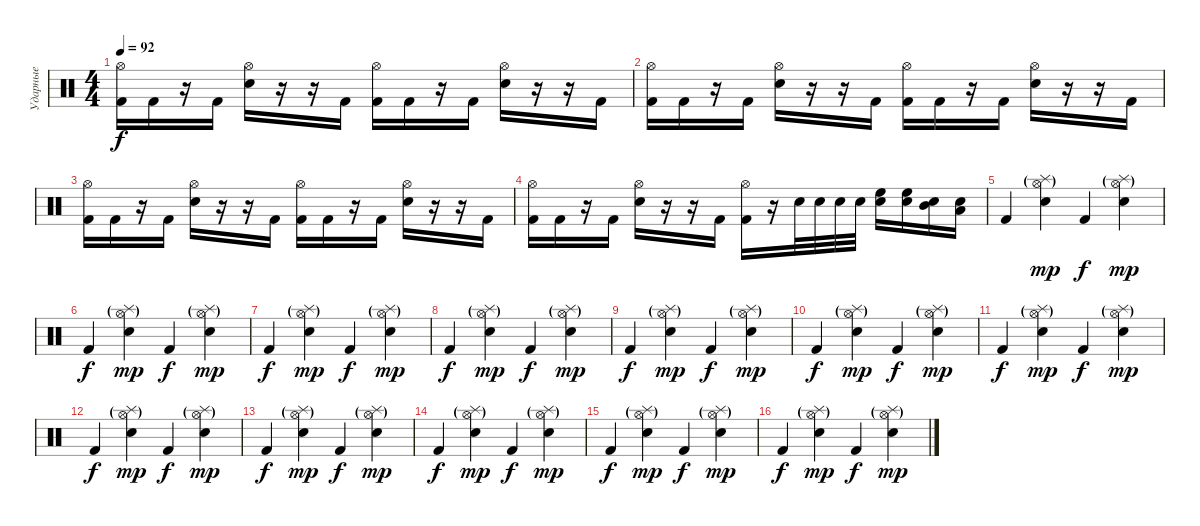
\track ("Ударные" "Ударные") {instrument percussion}
\staff {score}
\articulation defaults
\ts (4 4)
\tempo 92
\clef neutral
\ks c
("Hi-Hat (open)" "Kick (hit) 2").16{dy f} "Kick (hit) 2".16 r.16 "Kick (hit) 2".16 ("Hi-Hat (open)" "Snare (hit) 2").16 r.16 r.16 "Kick (hit) 2".16 ("Hi-Hat (open)" "Kick (hit) 2").16 "Kick (hit) 2".16 r.16 "Kick (hit) 2".16 ("Hi-Hat (open)" "Snare (hit) 2").16 r.16 r.16 "Kick (hit) 2".16 |
("Hi-Hat (open)" "Kick (hit) 2").16 "Kick (hit) 2".16 r.16 "Kick (hit) 2".16 ("Hi-Hat (open)" "Snare (hit) 2").16 r.16 r.16 "Kick (hit) 2".16 ("Hi-Hat (open)" "Kick (hit) 2").16 "Kick (hit) 2".16 r.16 "Kick (hit) 2".16 ("Hi-Hat (open)" "Snare (hit) 2").16 r.16 r.16 "Kick (hit) 2".16 |
("Hi-Hat (open)" "Kick (hit) 2").16 "Kick (hit) 2".16 r.16 "Kick (hit) 2".16 ("Hi-Hat (open)" "Snare (hit) 2").16 r.16 r.16 "Kick (hit) 2".16 ("Hi-Hat (open)" "Kick (hit) 2").16 "Kick (hit) 2".16 r.16 "Kick (hit) 2".16 ("Hi-Hat (open)" "Snare (hit) 2").16 r.16 r.16 "Kick (hit) 2".16 |
("Hi-Hat (open)" "Kick (hit) 2").16 "Kick (hit) 2".16 r.16 "Kick (hit) 2".16 ("Hi-Hat (open)" "Snare (hit) 2").16 r.16 r.16 "Kick (hit) 2".16 ("Hi-Hat (open)" "Kick (hit) 2").16 r.16 "Snare (hit) 2".32 "Snare (hit) 2".32 "Snare (hit) 2".32 "Snare (hit) 2".32 ("High Floor Tom (hit)" "Snare (hit) 2").16 ("High Floor Tom (hit)" "Snare (hit) 2").16 ("Mid Tom (hit)" "Snare (hit) 2").16 ("Low Tom (hit)" "Snare (hit) 2").16 |
"Kick (hit) 2".4 ("Hi-Hat (open)"{g} "Splash (hit)"{g} "Snare (hit) 2").4{dy mp} "Kick (hit) 2".4{dy f} ("Hi-Hat (open)"{g} "Splash (hit)"{g} "Snare (hit) 2").4{dy mp} |
"Kick (hit) 2".4{dy f} ("Hi-Hat (open)"{g} "Splash (hit)"{g} "Snare (hit) 2").4{dy mp} "Kick (hit) 2".4{dy f} ("Hi-Hat (open)"{g} "Splash (hit)"{g} "Snare (hit) 2").4{dy mp} |
"Kick (hit) 2".4{dy f} ("Hi-Hat (open)"{g} "Splash (hit)"{g} "Snare (hit) 2").4{dy mp} "Kick (hit) 2".4{dy f} ("Hi-Hat (open)"{g} "Splash (hit)"{g} "Snare (hit) 2").4{dy mp} |
"Kick (hit) 2".4{dy f} ("Hi-Hat (open)"{g} "Splash (hit)"{g} "Snare (hit) 2").4{dy mp} "Kick (hit) 2".4{dy f} ("Hi-Hat (open)"{g} "Splash (hit)"{g} "Snare (hit) 2").4{dy mp} |
"Kick (hit) 2".4{dy f} ("Hi-Hat (open)"{g} "Splash (hit)"{g} "Snare (hit) 2").4{dy mp} "Kick (hit) 2".4{dy f} ("Hi-Hat (open)"{g} "Splash (hit)"{g} "Snare (hit) 2").4{dy mp} |
"Kick (hit) 2".4{dy f} ("Hi-Hat (open)"{g} "Splash (hit)"{g} "Snare (hit) 2").4{dy mp} "Kick (hit) 2".4{dy f} ("Hi-Hat (open)"{g} "Splash (hit)"{g} "Snare (hit) 2").4{dy mp} |
"Kick (hit) 2".4{dy f} ("Hi-Hat (open)"{g} "Splash (hit)"{g} "Snare (hit) 2").4{dy mp} "Kick (hit) 2".4{dy f} ("Hi-Hat (open)"{g} "Splash (hit)"{g} "Snare (hit) 2").4{dy mp} |
"Kick (hit) 2".4{dy f} ("Hi-Hat (open)"{g} "Splash (hit)"{g} "Snare (hit) 2").4{dy mp} "Kick (hit) 2".4{dy f} ("Hi-Hat (open)"{g} "Splash (hit)"{g} "Snare (hit) 2").4{dy mp} |
"Kick (hit) 2".4{dy f} ("Hi-Hat (open)"{g} "Splash (hit)"{g} "Snare (hit) 2").4{dy mp} "Kick (hit) 2".4{dy f} ("Hi-Hat (open)"{g} "Splash (hit)"{g} "Snare (hit) 2").4{dy mp} |
"Kick (hit) 2".4{dy f} ("Hi-Hat (open)"{g} "Splash (hit)"{g} "Snare (hit) 2").4{dy mp} "Kick (hit) 2".4{dy f} ("Hi-Hat (open)"{g} "Splash (hit)"{g} "Snare (hit) 2").4{dy mp} |
"Kick (hit) 2".4{dy f} ("Hi-Hat (open)"{g} "Splash (hit)"{g} "Snare (hit) 2").4{dy mp} "Kick (hit) 2".4{dy f} ("Hi-Hat (open)"{g} "Splash (hit)"{g} "Snare (hit) 2").4{dy mp} |
"Kick (hit) 2".4{dy f} ("Hi-Hat (open)"{g} "Splash (hit)"{g} "Snare (hit) 2").4{dy mp} "Kick (hit) 2".4{dy f} ("Hi-Hat (open)"{g} "Splash (hit)"{g} "Snare (hit) 2").4{dy mp}
